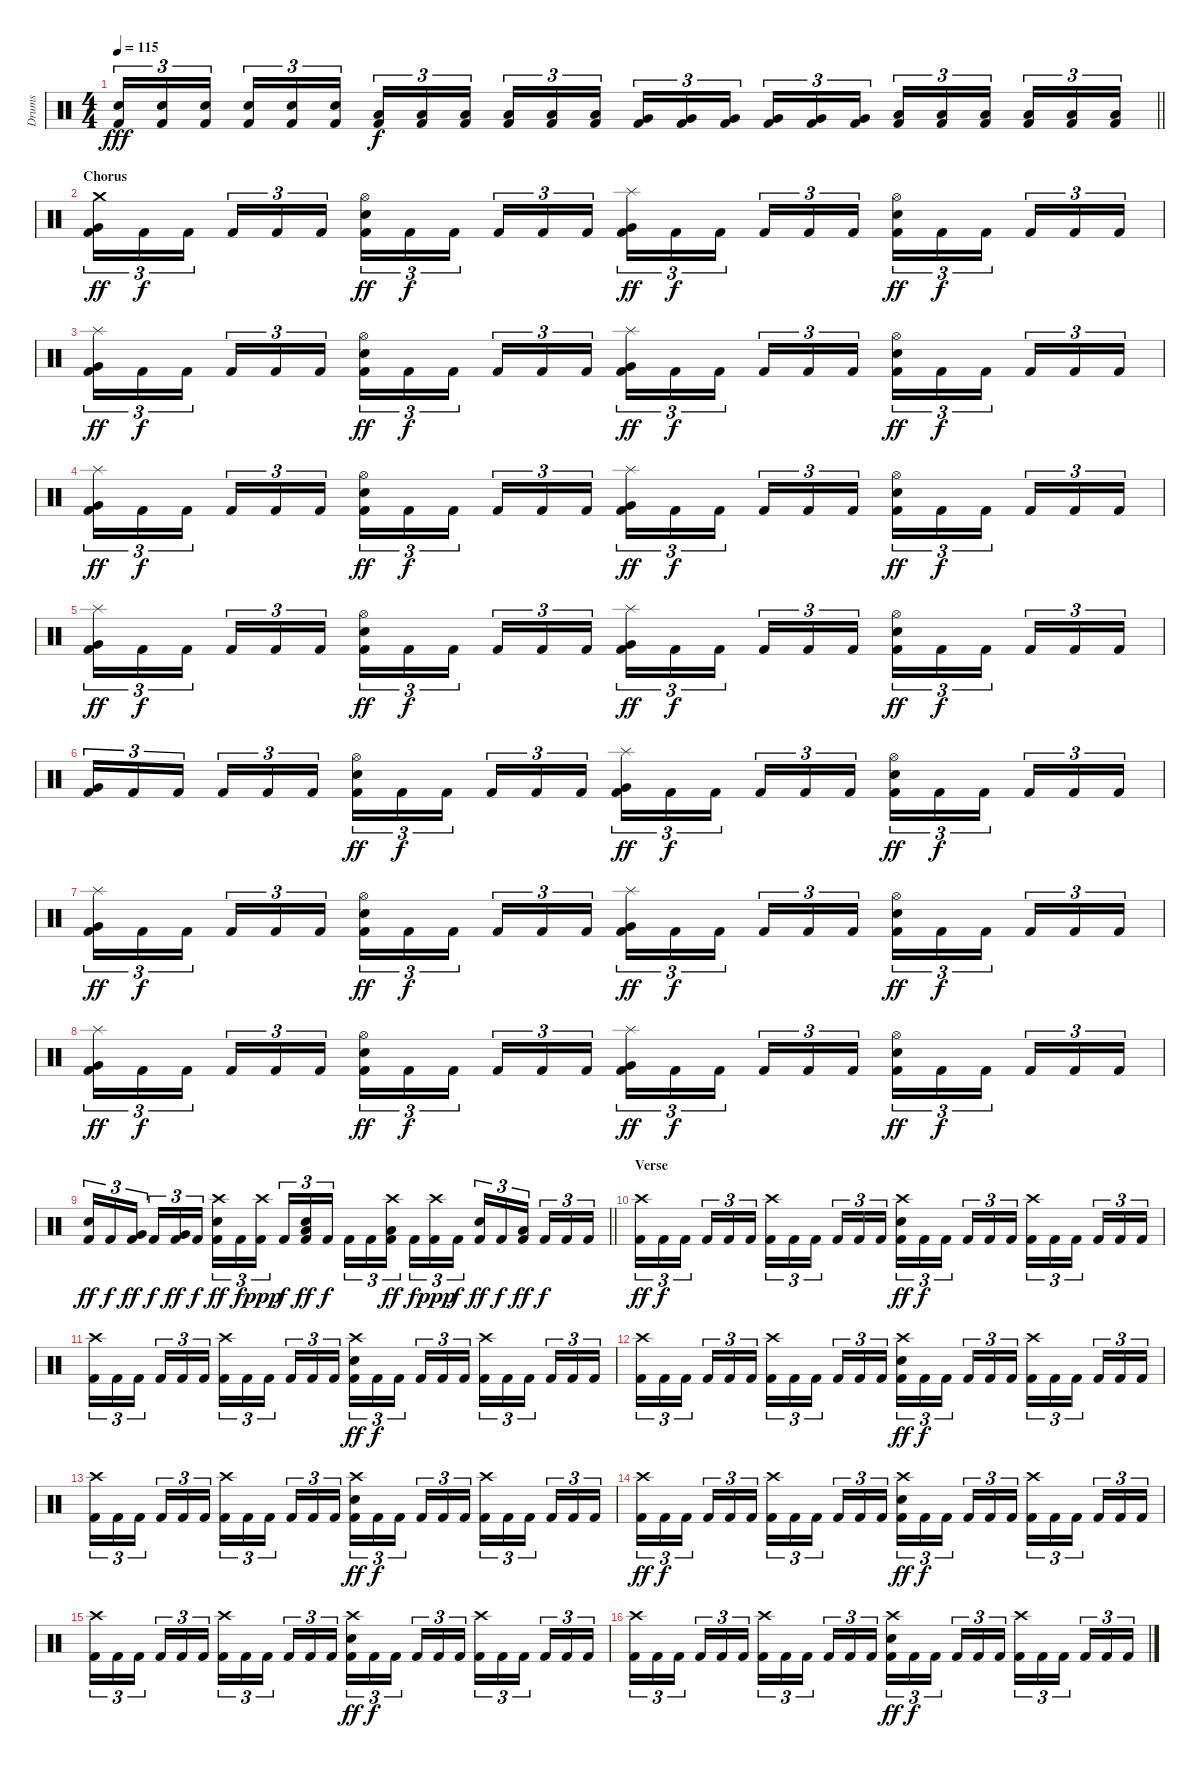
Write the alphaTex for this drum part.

\track ("Drums" "Drums") {instrument percussion}
\staff {score}
\articulation defaults
\ts (4 4)
\tempo 115
\clef neutral
\barLineRight lightlight
\ks c
("Snare (hit) 2" "Kick (hit) 2").16{tu (3 2) dy fff} ("Snare (hit) 2" "Kick (hit) 2").16{tu (3 2)} ("Snare (hit) 2" "Kick (hit) 2").16{tu (3 2) beam splitsecondary} ("Snare (hit) 2" "Kick (hit) 2").16{tu (3 2)} ("Snare (hit) 2" "Kick (hit) 2").16{tu (3 2)} ("Snare (hit) 2" "Kick (hit) 2").16{tu (3 2)} ("Low Tom (hit)" "Kick (hit) 2").16{tu (3 2) dy f} ("Low Tom (hit)" "Kick (hit) 2").16{tu (3 2)} ("Low Tom (hit)" "Kick (hit) 2").16{tu (3 2) beam splitsecondary} ("Low Tom (hit)" "Kick (hit) 2").16{tu (3 2)} ("Low Tom (hit)" "Kick (hit) 2").16{tu (3 2)} ("Low Tom (hit)" "Kick (hit) 2").16{tu (3 2)} ("Very Low Tom (hit)" "Kick (hit) 2").16{tu (3 2)} ("Very Low Tom (hit)" "Kick (hit) 2").16{tu (3 2)} ("Very Low Tom (hit)" "Kick (hit) 2").16{tu (3 2) beam splitsecondary} ("Very Low Tom (hit)" "Kick (hit) 2").16{tu (3 2)} ("Very Low Tom (hit)" "Kick (hit) 2").16{tu (3 2)} ("Very Low Tom (hit)" "Kick (hit) 2").16{tu (3 2)} ("Low Floor Tom (hit)" "Kick (hit) 2").16{tu (3 2)} ("Low Floor Tom (hit)" "Kick (hit) 2").16{tu (3 2)} ("Low Floor Tom (hit)" "Kick (hit) 2").16{tu (3 2) beam splitsecondary} ("Low Floor Tom (hit)" "Kick (hit) 2").16{tu (3 2)} ("Low Floor Tom (hit)" "Kick (hit) 2").16{tu (3 2)} ("Low Floor Tom (hit)" "Kick (hit) 2").16{tu (3 2)} |
\section ("" "Chorus")
("Crash medium (hit)" "Very Low Tom (hit)" "Kick (hit) 2").16{tu (3 2) dy ff} "Kick (hit) 2".16{tu (3 2) dy f} "Kick (hit) 2".16{tu (3 2) beam splitsecondary} "Kick (hit) 2".16{tu (3 2)} "Kick (hit) 2".16{tu (3 2)} "Kick (hit) 2".16{tu (3 2)} ("Hi-Hat (open)" "Snare (hit) 2" "Kick (hit) 2").16{tu (3 2) dy ff} "Kick (hit) 2".16{tu (3 2) dy f} "Kick (hit) 2".16{tu (3 2) beam splitsecondary} "Kick (hit) 2".16{tu (3 2)} "Kick (hit) 2".16{tu (3 2)} "Kick (hit) 2".16{tu (3 2)} ("Splash (hit)" "Very Low Tom (hit)" "Kick (hit) 2").16{tu (3 2) dy ff} "Kick (hit) 2".16{tu (3 2) dy f} "Kick (hit) 2".16{tu (3 2) beam splitsecondary} "Kick (hit) 2".16{tu (3 2)} "Kick (hit) 2".16{tu (3 2)} "Kick (hit) 2".16{tu (3 2)} ("Hi-Hat (open)" "Snare (hit) 2" "Kick (hit) 2").16{tu (3 2) dy ff} "Kick (hit) 2".16{tu (3 2) dy f} "Kick (hit) 2".16{tu (3 2) beam splitsecondary} "Kick (hit) 2".16{tu (3 2)} "Kick (hit) 2".16{tu (3 2)} "Kick (hit) 2".16{tu (3 2)} |
("Splash (hit)" "Very Low Tom (hit)" "Kick (hit) 2").16{tu (3 2) dy ff} "Kick (hit) 2".16{tu (3 2) dy f} "Kick (hit) 2".16{tu (3 2) beam splitsecondary} "Kick (hit) 2".16{tu (3 2)} "Kick (hit) 2".16{tu (3 2)} "Kick (hit) 2".16{tu (3 2)} ("Hi-Hat (open)" "Snare (hit) 2" "Kick (hit) 2").16{tu (3 2) dy ff} "Kick (hit) 2".16{tu (3 2) dy f} "Kick (hit) 2".16{tu (3 2) beam splitsecondary} "Kick (hit) 2".16{tu (3 2)} "Kick (hit) 2".16{tu (3 2)} "Kick (hit) 2".16{tu (3 2)} ("Splash (hit)" "Very Low Tom (hit)" "Kick (hit) 2").16{tu (3 2) dy ff} "Kick (hit) 2".16{tu (3 2) dy f} "Kick (hit) 2".16{tu (3 2) beam splitsecondary} "Kick (hit) 2".16{tu (3 2)} "Kick (hit) 2".16{tu (3 2)} "Kick (hit) 2".16{tu (3 2)} ("Hi-Hat (open)" "Snare (hit) 2" "Kick (hit) 2").16{tu (3 2) dy ff} "Kick (hit) 2".16{tu (3 2) dy f} "Kick (hit) 2".16{tu (3 2) beam splitsecondary} "Kick (hit) 2".16{tu (3 2)} "Kick (hit) 2".16{tu (3 2)} "Kick (hit) 2".16{tu (3 2)} |
("Splash (hit)" "Very Low Tom (hit)" "Kick (hit) 2").16{tu (3 2) dy ff} "Kick (hit) 2".16{tu (3 2) dy f} "Kick (hit) 2".16{tu (3 2) beam splitsecondary} "Kick (hit) 2".16{tu (3 2)} "Kick (hit) 2".16{tu (3 2)} "Kick (hit) 2".16{tu (3 2)} ("Hi-Hat (open)" "Snare (hit) 2" "Kick (hit) 2").16{tu (3 2) dy ff} "Kick (hit) 2".16{tu (3 2) dy f} "Kick (hit) 2".16{tu (3 2) beam splitsecondary} "Kick (hit) 2".16{tu (3 2)} "Kick (hit) 2".16{tu (3 2)} "Kick (hit) 2".16{tu (3 2)} ("Splash (hit)" "Very Low Tom (hit)" "Kick (hit) 2").16{tu (3 2) dy ff} "Kick (hit) 2".16{tu (3 2) dy f} "Kick (hit) 2".16{tu (3 2) beam splitsecondary} "Kick (hit) 2".16{tu (3 2)} "Kick (hit) 2".16{tu (3 2)} "Kick (hit) 2".16{tu (3 2)} ("Hi-Hat (open)" "Snare (hit) 2" "Kick (hit) 2").16{tu (3 2) dy ff} "Kick (hit) 2".16{tu (3 2) dy f} "Kick (hit) 2".16{tu (3 2) beam splitsecondary} "Kick (hit) 2".16{tu (3 2)} "Kick (hit) 2".16{tu (3 2)} "Kick (hit) 2".16{tu (3 2)} |
("Splash (hit)" "Very Low Tom (hit)" "Kick (hit) 2").16{tu (3 2) dy ff} "Kick (hit) 2".16{tu (3 2) dy f} "Kick (hit) 2".16{tu (3 2) beam splitsecondary} "Kick (hit) 2".16{tu (3 2)} "Kick (hit) 2".16{tu (3 2)} "Kick (hit) 2".16{tu (3 2)} ("Hi-Hat (open)" "Snare (hit) 2" "Kick (hit) 2").16{tu (3 2) dy ff} "Kick (hit) 2".16{tu (3 2) dy f} "Kick (hit) 2".16{tu (3 2) beam splitsecondary} "Kick (hit) 2".16{tu (3 2)} "Kick (hit) 2".16{tu (3 2)} "Kick (hit) 2".16{tu (3 2)} ("Splash (hit)" "Very Low Tom (hit)" "Kick (hit) 2").16{tu (3 2) dy ff} "Kick (hit) 2".16{tu (3 2) dy f} "Kick (hit) 2".16{tu (3 2) beam splitsecondary} "Kick (hit) 2".16{tu (3 2)} "Kick (hit) 2".16{tu (3 2)} "Kick (hit) 2".16{tu (3 2)} ("Hi-Hat (open)" "Snare (hit) 2" "Kick (hit) 2").16{tu (3 2) dy ff} "Kick (hit) 2".16{tu (3 2) dy f} "Kick (hit) 2".16{tu (3 2) beam splitsecondary} "Kick (hit) 2".16{tu (3 2)} "Kick (hit) 2".16{tu (3 2)} "Kick (hit) 2".16{tu (3 2)} |
("Very Low Tom (hit)" "Kick (hit) 2").16{tu (3 2)} "Kick (hit) 2".16{tu (3 2)} "Kick (hit) 2".16{tu (3 2) beam splitsecondary} "Kick (hit) 2".16{tu (3 2)} "Kick (hit) 2".16{tu (3 2)} "Kick (hit) 2".16{tu (3 2)} ("Hi-Hat (open)" "Snare (hit) 2" "Kick (hit) 2").16{tu (3 2) dy ff} "Kick (hit) 2".16{tu (3 2) dy f} "Kick (hit) 2".16{tu (3 2) beam splitsecondary} "Kick (hit) 2".16{tu (3 2)} "Kick (hit) 2".16{tu (3 2)} "Kick (hit) 2".16{tu (3 2)} ("Splash (hit)" "Very Low Tom (hit)" "Kick (hit) 2").16{tu (3 2) dy ff} "Kick (hit) 2".16{tu (3 2) dy f} "Kick (hit) 2".16{tu (3 2) beam splitsecondary} "Kick (hit) 2".16{tu (3 2)} "Kick (hit) 2".16{tu (3 2)} "Kick (hit) 2".16{tu (3 2)} ("Hi-Hat (open)" "Snare (hit) 2" "Kick (hit) 2").16{tu (3 2) dy ff} "Kick (hit) 2".16{tu (3 2) dy f} "Kick (hit) 2".16{tu (3 2) beam splitsecondary} "Kick (hit) 2".16{tu (3 2)} "Kick (hit) 2".16{tu (3 2)} "Kick (hit) 2".16{tu (3 2)} |
("Splash (hit)" "Very Low Tom (hit)" "Kick (hit) 2").16{tu (3 2) dy ff} "Kick (hit) 2".16{tu (3 2) dy f} "Kick (hit) 2".16{tu (3 2) beam splitsecondary} "Kick (hit) 2".16{tu (3 2)} "Kick (hit) 2".16{tu (3 2)} "Kick (hit) 2".16{tu (3 2)} ("Hi-Hat (open)" "Snare (hit) 2" "Kick (hit) 2").16{tu (3 2) dy ff} "Kick (hit) 2".16{tu (3 2) dy f} "Kick (hit) 2".16{tu (3 2) beam splitsecondary} "Kick (hit) 2".16{tu (3 2)} "Kick (hit) 2".16{tu (3 2)} "Kick (hit) 2".16{tu (3 2)} ("Splash (hit)" "Very Low Tom (hit)" "Kick (hit) 2").16{tu (3 2) dy ff} "Kick (hit) 2".16{tu (3 2) dy f} "Kick (hit) 2".16{tu (3 2) beam splitsecondary} "Kick (hit) 2".16{tu (3 2)} "Kick (hit) 2".16{tu (3 2)} "Kick (hit) 2".16{tu (3 2)} ("Hi-Hat (open)" "Snare (hit) 2" "Kick (hit) 2").16{tu (3 2) dy ff} "Kick (hit) 2".16{tu (3 2) dy f} "Kick (hit) 2".16{tu (3 2) beam splitsecondary} "Kick (hit) 2".16{tu (3 2)} "Kick (hit) 2".16{tu (3 2)} "Kick (hit) 2".16{tu (3 2)} |
("Splash (hit)" "Very Low Tom (hit)" "Kick (hit) 2").16{tu (3 2) dy ff} "Kick (hit) 2".16{tu (3 2) dy f} "Kick (hit) 2".16{tu (3 2) beam splitsecondary} "Kick (hit) 2".16{tu (3 2)} "Kick (hit) 2".16{tu (3 2)} "Kick (hit) 2".16{tu (3 2)} ("Hi-Hat (open)" "Snare (hit) 2" "Kick (hit) 2").16{tu (3 2) dy ff} "Kick (hit) 2".16{tu (3 2) dy f} "Kick (hit) 2".16{tu (3 2) beam splitsecondary} "Kick (hit) 2".16{tu (3 2)} "Kick (hit) 2".16{tu (3 2)} "Kick (hit) 2".16{tu (3 2)} ("Splash (hit)" "Very Low Tom (hit)" "Kick (hit) 2").16{tu (3 2) dy ff} "Kick (hit) 2".16{tu (3 2) dy f} "Kick (hit) 2".16{tu (3 2) beam splitsecondary} "Kick (hit) 2".16{tu (3 2)} "Kick (hit) 2".16{tu (3 2)} "Kick (hit) 2".16{tu (3 2)} ("Hi-Hat (open)" "Snare (hit) 2" "Kick (hit) 2").16{tu (3 2) dy ff} "Kick (hit) 2".16{tu (3 2) dy f} "Kick (hit) 2".16{tu (3 2) beam splitsecondary} "Kick (hit) 2".16{tu (3 2)} "Kick (hit) 2".16{tu (3 2)} "Kick (hit) 2".16{tu (3 2)} |
\barLineRight lightlight
("Snare (hit) 2" "Kick (hit) 2").16{tu (3 2) dy ff} "Kick (hit) 2".16{tu (3 2) dy f} ("Very Low Tom (hit)" "Kick (hit) 2").16{tu (3 2) dy ff beam splitsecondary} "Kick (hit) 2".16{tu (3 2) dy f} ("Very Low Tom (hit)" "Kick (hit) 2").16{tu (3 2) dy ff} "Kick (hit) 2".16{tu (3 2) dy f} ("Crash high (hit)" "Snare (hit) 2" "Kick (hit) 2").16{tu (3 2) dy ff} "Kick (hit) 2".16{tu (3 2) dy f} ("Crash high (hit)" "Kick (hit) 2").16{tu (3 2) dy ppp beam splitsecondary} "Kick (hit) 2".16{tu (3 2) dy f} ("Snare (hit) 2" "Low Tom (hit)" "Kick (hit) 2").16{tu (3 2) dy ff} "Kick (hit) 2".16{tu (3 2) dy f} "Kick (hit) 2".16{tu (3 2)} "Kick (hit) 2".16{tu (3 2)} ("Crash high (hit)" "Low Floor Tom (hit)" "Kick (hit) 2").16{tu (3 2) dy ff beam splitsecondary} "Kick (hit) 2".16{tu (3 2) dy f} ("Crash high (hit)" "Kick (hit) 2").16{tu (3 2) dy ppp} "Kick (hit) 2".16{tu (3 2) dy f} ("Snare (hit) 2" "Kick (hit) 2").16{tu (3 2) dy ff} "Kick (hit) 2".16{tu (3 2) dy f} ("Low Tom (hit)" "Kick (hit) 2").16{tu (3 2) dy ff beam splitsecondary} "Kick (hit) 2".16{tu (3 2) dy f} "Kick (hit) 2".16{tu (3 2)} "Kick (hit) 2".16{tu (3 2)} |
\section ("" "Verse")
("Crash high (hit)" "Kick (hit) 2").16{tu (3 2) dy ff} "Kick (hit) 2".16{tu (3 2) dy f} "Kick (hit) 2".16{tu (3 2) beam splitsecondary} "Kick (hit) 2".16{tu (3 2)} "Kick (hit) 2".16{tu (3 2)} "Kick (hit) 2".16{tu (3 2)} ("Crash high (hit)" "Kick (hit) 2").16{tu (3 2)} "Kick (hit) 2".16{tu (3 2)} "Kick (hit) 2".16{tu (3 2) beam splitsecondary} "Kick (hit) 2".16{tu (3 2)} "Kick (hit) 2".16{tu (3 2)} "Kick (hit) 2".16{tu (3 2)} ("Crash high (hit)" "Snare (hit) 2" "Kick (hit) 2").16{tu (3 2) dy ff} "Kick (hit) 2".16{tu (3 2) dy f} "Kick (hit) 2".16{tu (3 2) beam splitsecondary} "Kick (hit) 2".16{tu (3 2)} "Kick (hit) 2".16{tu (3 2)} "Kick (hit) 2".16{tu (3 2)} ("Crash high (hit)" "Kick (hit) 2").16{tu (3 2)} "Kick (hit) 2".16{tu (3 2)} "Kick (hit) 2".16{tu (3 2) beam splitsecondary} "Kick (hit) 2".16{tu (3 2)} "Kick (hit) 2".16{tu (3 2)} "Kick (hit) 2".16{tu (3 2)} |
("Crash high (hit)" "Kick (hit) 2").16{tu (3 2)} "Kick (hit) 2".16{tu (3 2)} "Kick (hit) 2".16{tu (3 2) beam splitsecondary} "Kick (hit) 2".16{tu (3 2)} "Kick (hit) 2".16{tu (3 2)} "Kick (hit) 2".16{tu (3 2)} ("Crash high (hit)" "Kick (hit) 2").16{tu (3 2)} "Kick (hit) 2".16{tu (3 2)} "Kick (hit) 2".16{tu (3 2) beam splitsecondary} "Kick (hit) 2".16{tu (3 2)} "Kick (hit) 2".16{tu (3 2)} "Kick (hit) 2".16{tu (3 2)} ("Crash high (hit)" "Snare (hit) 2" "Kick (hit) 2").16{tu (3 2) dy ff} "Kick (hit) 2".16{tu (3 2) dy f} "Kick (hit) 2".16{tu (3 2) beam splitsecondary} "Kick (hit) 2".16{tu (3 2)} "Kick (hit) 2".16{tu (3 2)} "Kick (hit) 2".16{tu (3 2)} ("Crash high (hit)" "Kick (hit) 2").16{tu (3 2)} "Kick (hit) 2".16{tu (3 2)} "Kick (hit) 2".16{tu (3 2) beam splitsecondary} "Kick (hit) 2".16{tu (3 2)} "Kick (hit) 2".16{tu (3 2)} "Kick (hit) 2".16{tu (3 2)} |
("Crash high (hit)" "Kick (hit) 2").16{tu (3 2)} "Kick (hit) 2".16{tu (3 2)} "Kick (hit) 2".16{tu (3 2) beam splitsecondary} "Kick (hit) 2".16{tu (3 2)} "Kick (hit) 2".16{tu (3 2)} "Kick (hit) 2".16{tu (3 2)} ("Crash high (hit)" "Kick (hit) 2").16{tu (3 2)} "Kick (hit) 2".16{tu (3 2)} "Kick (hit) 2".16{tu (3 2) beam splitsecondary} "Kick (hit) 2".16{tu (3 2)} "Kick (hit) 2".16{tu (3 2)} "Kick (hit) 2".16{tu (3 2)} ("Crash high (hit)" "Snare (hit) 2" "Kick (hit) 2").16{tu (3 2) dy ff} "Kick (hit) 2".16{tu (3 2) dy f} "Kick (hit) 2".16{tu (3 2) beam splitsecondary} "Kick (hit) 2".16{tu (3 2)} "Kick (hit) 2".16{tu (3 2)} "Kick (hit) 2".16{tu (3 2)} ("Crash high (hit)" "Kick (hit) 2").16{tu (3 2)} "Kick (hit) 2".16{tu (3 2)} "Kick (hit) 2".16{tu (3 2) beam splitsecondary} "Kick (hit) 2".16{tu (3 2)} "Kick (hit) 2".16{tu (3 2)} "Kick (hit) 2".16{tu (3 2)} |
("Crash high (hit)" "Kick (hit) 2").16{tu (3 2)} "Kick (hit) 2".16{tu (3 2)} "Kick (hit) 2".16{tu (3 2) beam splitsecondary} "Kick (hit) 2".16{tu (3 2)} "Kick (hit) 2".16{tu (3 2)} "Kick (hit) 2".16{tu (3 2)} ("Crash high (hit)" "Kick (hit) 2").16{tu (3 2)} "Kick (hit) 2".16{tu (3 2)} "Kick (hit) 2".16{tu (3 2) beam splitsecondary} "Kick (hit) 2".16{tu (3 2)} "Kick (hit) 2".16{tu (3 2)} "Kick (hit) 2".16{tu (3 2)} ("Crash high (hit)" "Snare (hit) 2" "Kick (hit) 2").16{tu (3 2) dy ff} "Kick (hit) 2".16{tu (3 2) dy f} "Kick (hit) 2".16{tu (3 2) beam splitsecondary} "Kick (hit) 2".16{tu (3 2)} "Kick (hit) 2".16{tu (3 2)} "Kick (hit) 2".16{tu (3 2)} ("Crash high (hit)" "Kick (hit) 2").16{tu (3 2)} "Kick (hit) 2".16{tu (3 2)} "Kick (hit) 2".16{tu (3 2) beam splitsecondary} "Kick (hit) 2".16{tu (3 2)} "Kick (hit) 2".16{tu (3 2)} "Kick (hit) 2".16{tu (3 2)} |
("Crash high (hit)" "Kick (hit) 2").16{tu (3 2) dy ff} "Kick (hit) 2".16{tu (3 2) dy f} "Kick (hit) 2".16{tu (3 2) beam splitsecondary} "Kick (hit) 2".16{tu (3 2)} "Kick (hit) 2".16{tu (3 2)} "Kick (hit) 2".16{tu (3 2)} ("Crash high (hit)" "Kick (hit) 2").16{tu (3 2)} "Kick (hit) 2".16{tu (3 2)} "Kick (hit) 2".16{tu (3 2) beam splitsecondary} "Kick (hit) 2".16{tu (3 2)} "Kick (hit) 2".16{tu (3 2)} "Kick (hit) 2".16{tu (3 2)} ("Crash high (hit)" "Snare (hit) 2" "Kick (hit) 2").16{tu (3 2) dy ff} "Kick (hit) 2".16{tu (3 2) dy f} "Kick (hit) 2".16{tu (3 2) beam splitsecondary} "Kick (hit) 2".16{tu (3 2)} "Kick (hit) 2".16{tu (3 2)} "Kick (hit) 2".16{tu (3 2)} ("Crash high (hit)" "Kick (hit) 2").16{tu (3 2)} "Kick (hit) 2".16{tu (3 2)} "Kick (hit) 2".16{tu (3 2) beam splitsecondary} "Kick (hit) 2".16{tu (3 2)} "Kick (hit) 2".16{tu (3 2)} "Kick (hit) 2".16{tu (3 2)} |
("Crash high (hit)" "Kick (hit) 2").16{tu (3 2)} "Kick (hit) 2".16{tu (3 2)} "Kick (hit) 2".16{tu (3 2) beam splitsecondary} "Kick (hit) 2".16{tu (3 2)} "Kick (hit) 2".16{tu (3 2)} "Kick (hit) 2".16{tu (3 2)} ("Crash high (hit)" "Kick (hit) 2").16{tu (3 2)} "Kick (hit) 2".16{tu (3 2)} "Kick (hit) 2".16{tu (3 2) beam splitsecondary} "Kick (hit) 2".16{tu (3 2)} "Kick (hit) 2".16{tu (3 2)} "Kick (hit) 2".16{tu (3 2)} ("Crash high (hit)" "Snare (hit) 2" "Kick (hit) 2").16{tu (3 2) dy ff} "Kick (hit) 2".16{tu (3 2) dy f} "Kick (hit) 2".16{tu (3 2) beam splitsecondary} "Kick (hit) 2".16{tu (3 2)} "Kick (hit) 2".16{tu (3 2)} "Kick (hit) 2".16{tu (3 2)} ("Crash high (hit)" "Kick (hit) 2").16{tu (3 2)} "Kick (hit) 2".16{tu (3 2)} "Kick (hit) 2".16{tu (3 2) beam splitsecondary} "Kick (hit) 2".16{tu (3 2)} "Kick (hit) 2".16{tu (3 2)} "Kick (hit) 2".16{tu (3 2)} |
("Crash high (hit)" "Kick (hit) 2").16{tu (3 2)} "Kick (hit) 2".16{tu (3 2)} "Kick (hit) 2".16{tu (3 2) beam splitsecondary} "Kick (hit) 2".16{tu (3 2)} "Kick (hit) 2".16{tu (3 2)} "Kick (hit) 2".16{tu (3 2)} ("Crash high (hit)" "Kick (hit) 2").16{tu (3 2)} "Kick (hit) 2".16{tu (3 2)} "Kick (hit) 2".16{tu (3 2) beam splitsecondary} "Kick (hit) 2".16{tu (3 2)} "Kick (hit) 2".16{tu (3 2)} "Kick (hit) 2".16{tu (3 2)} ("Crash high (hit)" "Snare (hit) 2" "Kick (hit) 2").16{tu (3 2) dy ff} "Kick (hit) 2".16{tu (3 2) dy f} "Kick (hit) 2".16{tu (3 2) beam splitsecondary} "Kick (hit) 2".16{tu (3 2)} "Kick (hit) 2".16{tu (3 2)} "Kick (hit) 2".16{tu (3 2)} ("Crash high (hit)" "Kick (hit) 2").16{tu (3 2)} "Kick (hit) 2".16{tu (3 2)} "Kick (hit) 2".16{tu (3 2) beam splitsecondary} "Kick (hit) 2".16{tu (3 2)} "Kick (hit) 2".16{tu (3 2)} "Kick (hit) 2".16{tu (3 2)}
